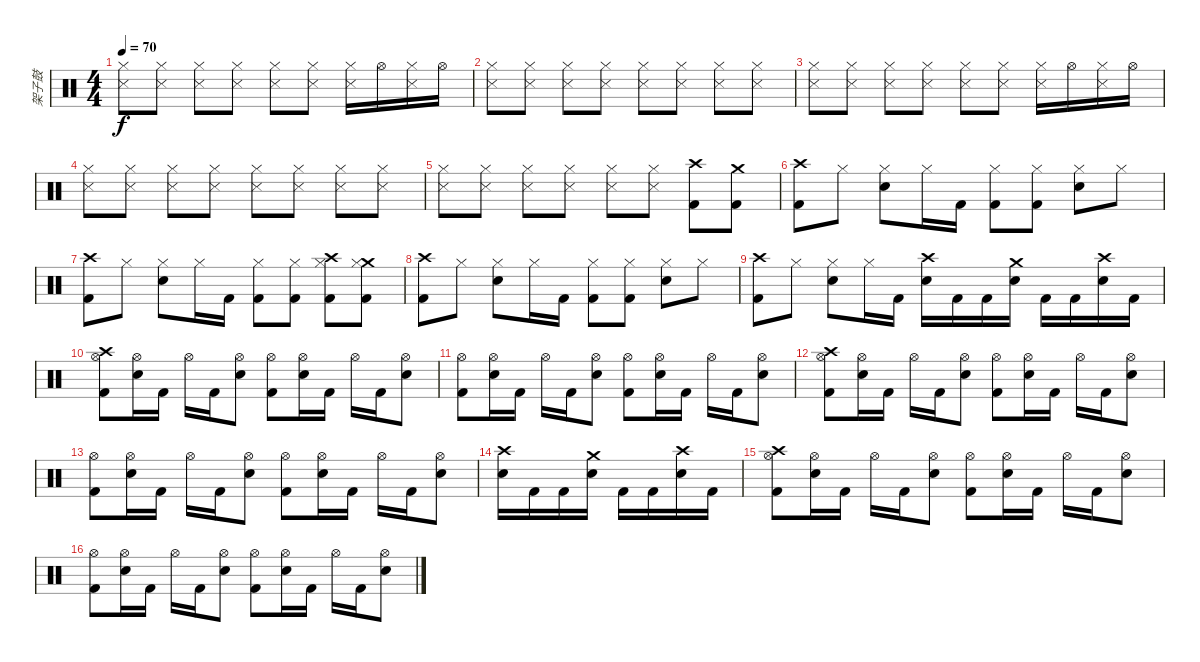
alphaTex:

\track ("架子鼓" "架子鼓") {instrument percussion}
\staff {score}
\articulation defaults
\ts (4 4)
\tempo 70
\clef neutral
\ks c
("Snare (side stick) 3" "Hi-Hat (closed)").8{dy f} ("Snare (side stick) 3" "Hi-Hat (closed)").8 ("Snare (side stick) 3" "Hi-Hat (closed)").8 ("Snare (side stick) 3" "Hi-Hat (closed)").8 ("Snare (side stick) 3" "Hi-Hat (closed)").8 ("Snare (side stick) 3" "Hi-Hat (closed)").8 ("Snare (side stick) 3" "Hi-Hat (closed)").16 "Hi-Hat (open)".16 ("Snare (side stick) 3" "Hi-Hat (closed)").16 "Hi-Hat (open)".16 |
("Snare (side stick) 3" "Hi-Hat (closed)").8 ("Snare (side stick) 3" "Hi-Hat (closed)").8 ("Snare (side stick) 3" "Hi-Hat (closed)").8 ("Snare (side stick) 3" "Hi-Hat (closed)").8 ("Snare (side stick) 3" "Hi-Hat (closed)").8 ("Snare (side stick) 3" "Hi-Hat (closed)").8 ("Snare (side stick) 3" "Hi-Hat (closed)").8 ("Snare (side stick) 3" "Hi-Hat (closed)").8 |
("Snare (side stick) 3" "Hi-Hat (closed)").8 ("Snare (side stick) 3" "Hi-Hat (closed)").8 ("Snare (side stick) 3" "Hi-Hat (closed)").8 ("Snare (side stick) 3" "Hi-Hat (closed)").8 ("Snare (side stick) 3" "Hi-Hat (closed)").8 ("Snare (side stick) 3" "Hi-Hat (closed)").8 ("Snare (side stick) 3" "Hi-Hat (closed)").16 "Hi-Hat (open)".16 ("Snare (side stick) 3" "Hi-Hat (closed)").16 "Hi-Hat (open)".16 |
("Snare (side stick) 3" "Hi-Hat (closed)").8 ("Snare (side stick) 3" "Hi-Hat (closed)").8 ("Snare (side stick) 3" "Hi-Hat (closed)").8 ("Snare (side stick) 3" "Hi-Hat (closed)").8 ("Snare (side stick) 3" "Hi-Hat (closed)").8 ("Snare (side stick) 3" "Hi-Hat (closed)").8 ("Snare (side stick) 3" "Hi-Hat (closed)").8 ("Snare (side stick) 3" "Hi-Hat (closed)").8 |
("Snare (side stick) 3" "Hi-Hat (closed)").8 ("Snare (side stick) 3" "Hi-Hat (closed)").8 ("Snare (side stick) 3" "Hi-Hat (closed)").8 ("Snare (side stick) 3" "Hi-Hat (closed)").8 ("Snare (side stick) 3" "Hi-Hat (closed)").8 ("Snare (side stick) 3" "Hi-Hat (closed)").8 ("Crash high (hit)" "Kick (hit) 2").8 ("Crash medium (hit)" "Kick (hit) 2").8 |
("Crash high (hit)" "Kick (hit) 2").8 "Hi-Hat (closed)".8 ("Hi-Hat (closed)" "Snare (hit) 2").8 "Hi-Hat (closed)".16 "Kick (hit) 2".16 ("Hi-Hat (closed)" "Kick (hit) 2").8 ("Hi-Hat (closed)" "Kick (hit) 2").8 ("Hi-Hat (closed)" "Snare (hit) 2").8 "Hi-Hat (closed)".8 |
("Crash high (hit)" "Kick (hit) 2").8 "Hi-Hat (closed)".8 ("Hi-Hat (closed)" "Snare (hit) 2").8 "Hi-Hat (closed)".16 "Kick (hit) 2".16 ("Hi-Hat (closed)" "Kick (hit) 2").8 ("Hi-Hat (closed)" "Kick (hit) 2").8 ("Crash high (hit)" "Hi-Hat (closed)" "Kick (hit) 2").8 ("Crash medium (hit)" "Hi-Hat (closed)" "Kick (hit) 2").8 |
("Crash high (hit)" "Kick (hit) 2").8 "Hi-Hat (closed)".8 ("Hi-Hat (closed)" "Snare (hit) 2").8 "Hi-Hat (closed)".16 "Kick (hit) 2".16 ("Hi-Hat (closed)" "Kick (hit) 2").8 ("Hi-Hat (closed)" "Kick (hit) 2").8 ("Hi-Hat (closed)" "Snare (hit) 2").8 "Hi-Hat (closed)".8 |
("Crash high (hit)" "Kick (hit) 2").8 "Hi-Hat (closed)".8 ("Hi-Hat (closed)" "Snare (hit) 2").8 "Hi-Hat (closed)".16 "Kick (hit) 2".16 ("Crash high (hit)" "Snare (hit) 2").16 "Kick (hit) 2".16 "Kick (hit) 2".16 ("Crash medium (hit)" "Snare (hit) 2").16 "Kick (hit) 2".16 "Kick (hit) 2".16 ("Crash high (hit)" "Snare (hit) 2").16 "Kick (hit) 2".16 |
("Crash high (hit)" "Hi-Hat (open)" "Kick (hit) 2").8 ("Hi-Hat (open)" "Snare (hit) 2").16 "Kick (hit) 2".16 "Hi-Hat (open)".16 "Kick (hit) 2".16 ("Hi-Hat (open)" "Snare (hit) 2").8 ("Hi-Hat (open)" "Kick (hit) 2").8 ("Hi-Hat (open)" "Snare (hit) 2").16 "Kick (hit) 2".16 "Hi-Hat (open)".16 "Kick (hit) 2".16 ("Hi-Hat (open)" "Snare (hit) 2").8 |
("Hi-Hat (open)" "Kick (hit) 2").8 ("Hi-Hat (open)" "Snare (hit) 2").16 "Kick (hit) 2".16 "Hi-Hat (open)".16 "Kick (hit) 2".16 ("Hi-Hat (open)" "Snare (hit) 2").8 ("Hi-Hat (open)" "Kick (hit) 2").8 ("Hi-Hat (open)" "Snare (hit) 2").16 "Kick (hit) 2".16 "Hi-Hat (open)".16 "Kick (hit) 2".16 ("Hi-Hat (open)" "Snare (hit) 2").8 |
("Crash high (hit)" "Hi-Hat (open)" "Kick (hit) 2").8 ("Hi-Hat (open)" "Snare (hit) 2").16 "Kick (hit) 2".16 "Hi-Hat (open)".16 "Kick (hit) 2".16 ("Hi-Hat (open)" "Snare (hit) 2").8 ("Hi-Hat (open)" "Kick (hit) 2").8 ("Hi-Hat (open)" "Snare (hit) 2").16 "Kick (hit) 2".16 "Hi-Hat (open)".16 "Kick (hit) 2".16 ("Hi-Hat (open)" "Snare (hit) 2").8 |
("Hi-Hat (open)" "Kick (hit) 2").8 ("Hi-Hat (open)" "Snare (hit) 2").16 "Kick (hit) 2".16 "Hi-Hat (open)".16 "Kick (hit) 2".16 ("Hi-Hat (open)" "Snare (hit) 2").8 ("Hi-Hat (open)" "Kick (hit) 2").8 ("Hi-Hat (open)" "Snare (hit) 2").16 "Kick (hit) 2".16 "Hi-Hat (open)".16 "Kick (hit) 2".16 ("Hi-Hat (open)" "Snare (hit) 2").8 |
("Crash high (hit)" "Snare (hit) 2").16 "Kick (hit) 2".16 "Kick (hit) 2".16 ("Crash medium (hit)" "Snare (hit) 2").16 "Kick (hit) 2".16 "Kick (hit) 2".16 ("Crash high (hit)" "Snare (hit) 2").16 "Kick (hit) 2".16 |
("Crash high (hit)" "Hi-Hat (open)" "Kick (hit) 2").8 ("Hi-Hat (open)" "Snare (hit) 2").16 "Kick (hit) 2".16 "Hi-Hat (open)".16 "Kick (hit) 2".16 ("Hi-Hat (open)" "Snare (hit) 2").8 ("Hi-Hat (open)" "Kick (hit) 2").8 ("Hi-Hat (open)" "Snare (hit) 2").16 "Kick (hit) 2".16 "Hi-Hat (open)".16 "Kick (hit) 2".16 ("Hi-Hat (open)" "Snare (hit) 2").8 |
("Hi-Hat (open)" "Kick (hit) 2").8 ("Hi-Hat (open)" "Snare (hit) 2").16 "Kick (hit) 2".16 "Hi-Hat (open)".16 "Kick (hit) 2".16 ("Hi-Hat (open)" "Snare (hit) 2").8 ("Hi-Hat (open)" "Kick (hit) 2").8 ("Hi-Hat (open)" "Snare (hit) 2").16 "Kick (hit) 2".16 "Hi-Hat (open)".16 "Kick (hit) 2".16 ("Hi-Hat (open)" "Snare (hit) 2").8
